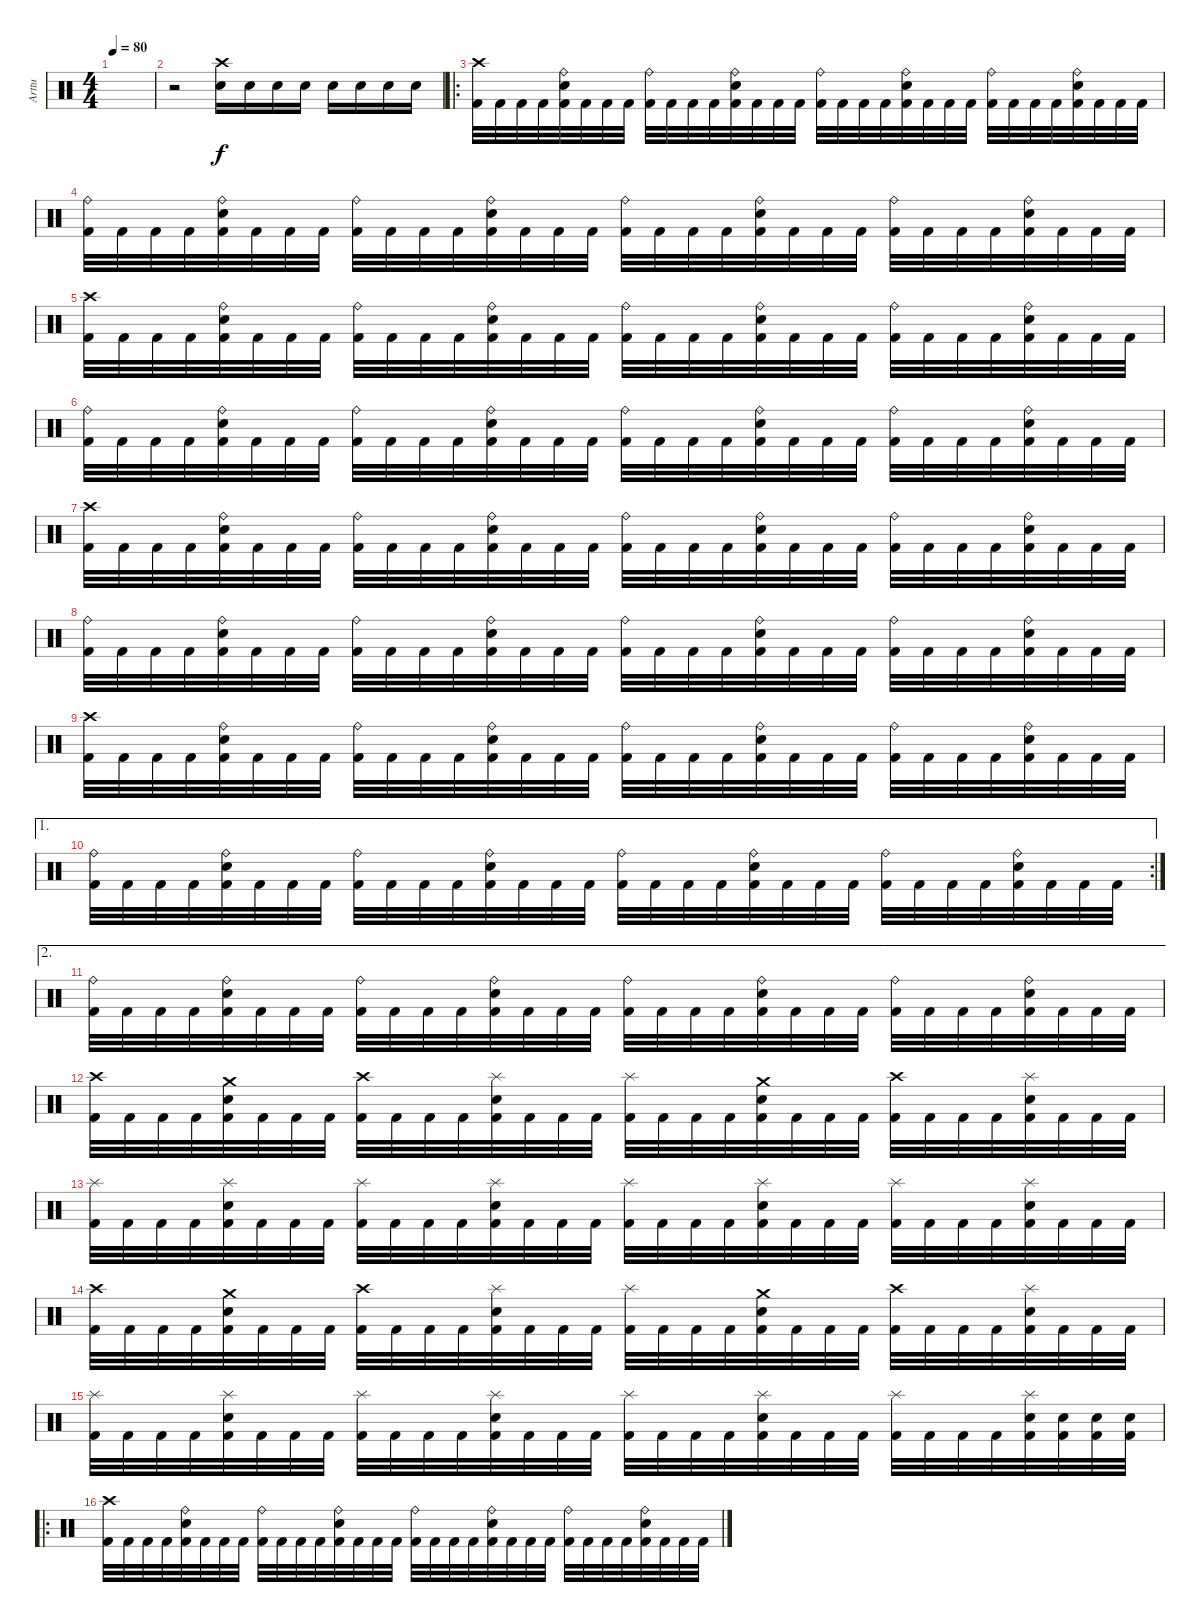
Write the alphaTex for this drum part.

\track ("Arttu" "Arttu") {instrument percussion}
\staff {score}
\articulation defaults
\ts (4 4)
\tempo 80
\clef neutral
\ks c
|
r.2 ("Crash high (hit)" "Electric Snare (hit)").16 "Electric Snare (hit)".16 "Electric Snare (hit)".16 "Electric Snare (hit)".16 "Electric Snare (hit)".16 "Electric Snare (hit)".16 "Electric Snare (hit)".16 "Electric Snare (hit)".16 |
\ro
("Kick (hit) 2" "Crash high (hit)").32 "Kick (hit) 2".32 "Kick (hit) 2".32 "Kick (hit) 2".32 ("Kick (hit) 2" "Electric Snare (hit)" "Ride (bell)").32 "Kick (hit) 2".32 "Kick (hit) 2".32 "Kick (hit) 2".32 ("Kick (hit) 2" "Ride (bell)").32 "Kick (hit) 2".32 "Kick (hit) 2".32 "Kick (hit) 2".32 ("Kick (hit) 2" "Electric Snare (hit)" "Ride (bell)").32 "Kick (hit) 2".32 "Kick (hit) 2".32 "Kick (hit) 2".32 ("Kick (hit) 2" "Ride (bell)").32 "Kick (hit) 2".32 "Kick (hit) 2".32 "Kick (hit) 2".32 ("Kick (hit) 2" "Electric Snare (hit)" "Ride (bell)").32 "Kick (hit) 2".32 "Kick (hit) 2".32 "Kick (hit) 2".32 ("Kick (hit) 2" "Ride (bell)").32 "Kick (hit) 2".32 "Kick (hit) 2".32 "Kick (hit) 2".32 ("Kick (hit) 2" "Electric Snare (hit)" "Ride (bell)").32 "Kick (hit) 2".32 "Kick (hit) 2".32 "Kick (hit) 2".32 |
("Kick (hit) 2" "Ride (bell)").32 "Kick (hit) 2".32 "Kick (hit) 2".32 "Kick (hit) 2".32 ("Kick (hit) 2" "Electric Snare (hit)" "Ride (bell)").32 "Kick (hit) 2".32 "Kick (hit) 2".32 "Kick (hit) 2".32 ("Kick (hit) 2" "Ride (bell)").32 "Kick (hit) 2".32 "Kick (hit) 2".32 "Kick (hit) 2".32 ("Kick (hit) 2" "Electric Snare (hit)" "Ride (bell)").32 "Kick (hit) 2".32 "Kick (hit) 2".32 "Kick (hit) 2".32 ("Kick (hit) 2" "Ride (bell)").32 "Kick (hit) 2".32 "Kick (hit) 2".32 "Kick (hit) 2".32 ("Kick (hit) 2" "Electric Snare (hit)" "Ride (bell)").32 "Kick (hit) 2".32 "Kick (hit) 2".32 "Kick (hit) 2".32 ("Kick (hit) 2" "Ride (bell)").32 "Kick (hit) 2".32 "Kick (hit) 2".32 "Kick (hit) 2".32 ("Kick (hit) 2" "Electric Snare (hit)" "Ride (bell)").32 "Kick (hit) 2".32 "Kick (hit) 2".32 "Kick (hit) 2".32 |
("Kick (hit) 2" "Crash high (hit)").32 "Kick (hit) 2".32 "Kick (hit) 2".32 "Kick (hit) 2".32 ("Kick (hit) 2" "Electric Snare (hit)" "Ride (bell)").32 "Kick (hit) 2".32 "Kick (hit) 2".32 "Kick (hit) 2".32 ("Kick (hit) 2" "Ride (bell)").32 "Kick (hit) 2".32 "Kick (hit) 2".32 "Kick (hit) 2".32 ("Kick (hit) 2" "Electric Snare (hit)" "Ride (bell)").32 "Kick (hit) 2".32 "Kick (hit) 2".32 "Kick (hit) 2".32 ("Kick (hit) 2" "Ride (bell)").32 "Kick (hit) 2".32 "Kick (hit) 2".32 "Kick (hit) 2".32 ("Kick (hit) 2" "Electric Snare (hit)" "Ride (bell)").32 "Kick (hit) 2".32 "Kick (hit) 2".32 "Kick (hit) 2".32 ("Kick (hit) 2" "Ride (bell)").32 "Kick (hit) 2".32 "Kick (hit) 2".32 "Kick (hit) 2".32 ("Kick (hit) 2" "Electric Snare (hit)" "Ride (bell)").32 "Kick (hit) 2".32 "Kick (hit) 2".32 "Kick (hit) 2".32 |
("Kick (hit) 2" "Ride (bell)").32 "Kick (hit) 2".32 "Kick (hit) 2".32 "Kick (hit) 2".32 ("Kick (hit) 2" "Electric Snare (hit)" "Ride (bell)").32 "Kick (hit) 2".32 "Kick (hit) 2".32 "Kick (hit) 2".32 ("Kick (hit) 2" "Ride (bell)").32 "Kick (hit) 2".32 "Kick (hit) 2".32 "Kick (hit) 2".32 ("Kick (hit) 2" "Electric Snare (hit)" "Ride (bell)").32 "Kick (hit) 2".32 "Kick (hit) 2".32 "Kick (hit) 2".32 ("Kick (hit) 2" "Ride (bell)").32 "Kick (hit) 2".32 "Kick (hit) 2".32 "Kick (hit) 2".32 ("Kick (hit) 2" "Electric Snare (hit)" "Ride (bell)").32 "Kick (hit) 2".32 "Kick (hit) 2".32 "Kick (hit) 2".32 ("Kick (hit) 2" "Ride (bell)").32 "Kick (hit) 2".32 "Kick (hit) 2".32 "Kick (hit) 2".32 ("Kick (hit) 2" "Electric Snare (hit)" "Ride (bell)").32 "Kick (hit) 2".32 "Kick (hit) 2".32 "Kick (hit) 2".32 |
("Kick (hit) 2" "Crash high (hit)").32 "Kick (hit) 2".32 "Kick (hit) 2".32 "Kick (hit) 2".32 ("Kick (hit) 2" "Electric Snare (hit)" "Ride (bell)").32 "Kick (hit) 2".32 "Kick (hit) 2".32 "Kick (hit) 2".32 ("Kick (hit) 2" "Ride (bell)").32 "Kick (hit) 2".32 "Kick (hit) 2".32 "Kick (hit) 2".32 ("Kick (hit) 2" "Electric Snare (hit)" "Ride (bell)").32 "Kick (hit) 2".32 "Kick (hit) 2".32 "Kick (hit) 2".32 ("Kick (hit) 2" "Ride (bell)").32 "Kick (hit) 2".32 "Kick (hit) 2".32 "Kick (hit) 2".32 ("Kick (hit) 2" "Electric Snare (hit)" "Ride (bell)").32 "Kick (hit) 2".32 "Kick (hit) 2".32 "Kick (hit) 2".32 ("Kick (hit) 2" "Ride (bell)").32 "Kick (hit) 2".32 "Kick (hit) 2".32 "Kick (hit) 2".32 ("Kick (hit) 2" "Electric Snare (hit)" "Ride (bell)").32 "Kick (hit) 2".32 "Kick (hit) 2".32 "Kick (hit) 2".32 |
("Kick (hit) 2" "Ride (bell)").32 "Kick (hit) 2".32 "Kick (hit) 2".32 "Kick (hit) 2".32 ("Kick (hit) 2" "Electric Snare (hit)" "Ride (bell)").32 "Kick (hit) 2".32 "Kick (hit) 2".32 "Kick (hit) 2".32 ("Kick (hit) 2" "Ride (bell)").32 "Kick (hit) 2".32 "Kick (hit) 2".32 "Kick (hit) 2".32 ("Kick (hit) 2" "Electric Snare (hit)" "Ride (bell)").32 "Kick (hit) 2".32 "Kick (hit) 2".32 "Kick (hit) 2".32 ("Kick (hit) 2" "Ride (bell)").32 "Kick (hit) 2".32 "Kick (hit) 2".32 "Kick (hit) 2".32 ("Kick (hit) 2" "Electric Snare (hit)" "Ride (bell)").32 "Kick (hit) 2".32 "Kick (hit) 2".32 "Kick (hit) 2".32 ("Kick (hit) 2" "Ride (bell)").32 "Kick (hit) 2".32 "Kick (hit) 2".32 "Kick (hit) 2".32 ("Kick (hit) 2" "Electric Snare (hit)" "Ride (bell)").32 "Kick (hit) 2".32 "Kick (hit) 2".32 "Kick (hit) 2".32 |
("Kick (hit) 2" "Crash high (hit)").32 "Kick (hit) 2".32 "Kick (hit) 2".32 "Kick (hit) 2".32 ("Kick (hit) 2" "Electric Snare (hit)" "Ride (bell)").32 "Kick (hit) 2".32 "Kick (hit) 2".32 "Kick (hit) 2".32 ("Kick (hit) 2" "Ride (bell)").32 "Kick (hit) 2".32 "Kick (hit) 2".32 "Kick (hit) 2".32 ("Kick (hit) 2" "Electric Snare (hit)" "Ride (bell)").32 "Kick (hit) 2".32 "Kick (hit) 2".32 "Kick (hit) 2".32 ("Kick (hit) 2" "Ride (bell)").32 "Kick (hit) 2".32 "Kick (hit) 2".32 "Kick (hit) 2".32 ("Kick (hit) 2" "Electric Snare (hit)" "Ride (bell)").32 "Kick (hit) 2".32 "Kick (hit) 2".32 "Kick (hit) 2".32 ("Kick (hit) 2" "Ride (bell)").32 "Kick (hit) 2".32 "Kick (hit) 2".32 "Kick (hit) 2".32 ("Kick (hit) 2" "Electric Snare (hit)" "Ride (bell)").32 "Kick (hit) 2".32 "Kick (hit) 2".32 "Kick (hit) 2".32 |
\ae 1
\rc 2
("Kick (hit) 2" "Ride (bell)").32 "Kick (hit) 2".32 "Kick (hit) 2".32 "Kick (hit) 2".32 ("Kick (hit) 2" "Electric Snare (hit)" "Ride (bell)").32 "Kick (hit) 2".32 "Kick (hit) 2".32 "Kick (hit) 2".32 ("Kick (hit) 2" "Ride (bell)").32 "Kick (hit) 2".32 "Kick (hit) 2".32 "Kick (hit) 2".32 ("Kick (hit) 2" "Electric Snare (hit)" "Ride (bell)").32 "Kick (hit) 2".32 "Kick (hit) 2".32 "Kick (hit) 2".32 ("Kick (hit) 2" "Ride (bell)").32 "Kick (hit) 2".32 "Kick (hit) 2".32 "Kick (hit) 2".32 ("Kick (hit) 2" "Electric Snare (hit)" "Ride (bell)").32 "Kick (hit) 2".32 "Kick (hit) 2".32 "Kick (hit) 2".32 ("Kick (hit) 2" "Ride (bell)").32 "Kick (hit) 2".32 "Kick (hit) 2".32 "Kick (hit) 2".32 ("Kick (hit) 2" "Electric Snare (hit)" "Ride (bell)").32 "Kick (hit) 2".32 "Kick (hit) 2".32 "Kick (hit) 2".32 |
\ae 2
("Kick (hit) 2" "Ride (bell)").32 "Kick (hit) 2".32 "Kick (hit) 2".32 "Kick (hit) 2".32 ("Kick (hit) 2" "Electric Snare (hit)" "Ride (bell)").32 "Kick (hit) 2".32 "Kick (hit) 2".32 "Kick (hit) 2".32 ("Kick (hit) 2" "Ride (bell)").32 "Kick (hit) 2".32 "Kick (hit) 2".32 "Kick (hit) 2".32 ("Kick (hit) 2" "Electric Snare (hit)" "Ride (bell)").32 "Kick (hit) 2".32 "Kick (hit) 2".32 "Kick (hit) 2".32 ("Kick (hit) 2" "Ride (bell)").32 "Kick (hit) 2".32 "Kick (hit) 2".32 "Kick (hit) 2".32 ("Kick (hit) 2" "Electric Snare (hit)" "Ride (bell)").32 "Kick (hit) 2".32 "Kick (hit) 2".32 "Kick (hit) 2".32 ("Kick (hit) 2" "Ride (bell)").32 "Kick (hit) 2".32 "Kick (hit) 2".32 "Kick (hit) 2".32 ("Kick (hit) 2" "Electric Snare (hit)" "Ride (bell)").32 "Kick (hit) 2".32 "Kick (hit) 2".32 "Kick (hit) 2".32 |
("Kick (hit) 2" "Crash high (hit)").32 "Kick (hit) 2".32 "Kick (hit) 2".32 "Kick (hit) 2".32 ("Kick (hit) 2" "Electric Snare (hit)" "Crash medium (hit)").32 "Kick (hit) 2".32 "Kick (hit) 2".32 "Kick (hit) 2".32 ("Kick (hit) 2" "Crash high (hit)").32 "Kick (hit) 2".32 "Kick (hit) 2".32 "Kick (hit) 2".32 ("Kick (hit) 2" "Electric Snare (hit)" "Splash (hit)").32 "Kick (hit) 2".32 "Kick (hit) 2".32 "Kick (hit) 2".32 ("Kick (hit) 2" "Splash (hit)").32 "Kick (hit) 2".32 "Kick (hit) 2".32 "Kick (hit) 2".32 ("Kick (hit) 2" "Electric Snare (hit)" "Crash medium (hit)").32 "Kick (hit) 2".32 "Kick (hit) 2".32 "Kick (hit) 2".32 ("Kick (hit) 2" "Crash high (hit)").32 "Kick (hit) 2".32 "Kick (hit) 2".32 "Kick (hit) 2".32 ("Kick (hit) 2" "Electric Snare (hit)" "Splash (hit)").32 "Kick (hit) 2".32 "Kick (hit) 2".32 "Kick (hit) 2".32 |
("Kick (hit) 2" "Splash (hit)").32 "Kick (hit) 2".32 "Kick (hit) 2".32 "Kick (hit) 2".32 ("Kick (hit) 2" "Electric Snare (hit)" "Splash (hit)").32 "Kick (hit) 2".32 "Kick (hit) 2".32 "Kick (hit) 2".32 ("Kick (hit) 2" "Splash (hit)").32 "Kick (hit) 2".32 "Kick (hit) 2".32 "Kick (hit) 2".32 ("Kick (hit) 2" "Electric Snare (hit)" "Splash (hit)").32 "Kick (hit) 2".32 "Kick (hit) 2".32 "Kick (hit) 2".32 ("Kick (hit) 2" "Splash (hit)").32 "Kick (hit) 2".32 "Kick (hit) 2".32 "Kick (hit) 2".32 ("Kick (hit) 2" "Electric Snare (hit)" "Splash (hit)").32 "Kick (hit) 2".32 "Kick (hit) 2".32 "Kick (hit) 2".32 ("Kick (hit) 2" "Splash (hit)").32 "Kick (hit) 2".32 "Kick (hit) 2".32 "Kick (hit) 2".32 ("Kick (hit) 2" "Electric Snare (hit)" "Splash (hit)").32 "Kick (hit) 2".32 "Kick (hit) 2".32 "Kick (hit) 2".32 |
("Kick (hit) 2" "Crash high (hit)").32 "Kick (hit) 2".32 "Kick (hit) 2".32 "Kick (hit) 2".32 ("Kick (hit) 2" "Electric Snare (hit)" "Crash medium (hit)").32 "Kick (hit) 2".32 "Kick (hit) 2".32 "Kick (hit) 2".32 ("Kick (hit) 2" "Crash high (hit)").32 "Kick (hit) 2".32 "Kick (hit) 2".32 "Kick (hit) 2".32 ("Kick (hit) 2" "Electric Snare (hit)" "Splash (hit)").32 "Kick (hit) 2".32 "Kick (hit) 2".32 "Kick (hit) 2".32 ("Kick (hit) 2" "Splash (hit)").32 "Kick (hit) 2".32 "Kick (hit) 2".32 "Kick (hit) 2".32 ("Kick (hit) 2" "Electric Snare (hit)" "Crash medium (hit)").32 "Kick (hit) 2".32 "Kick (hit) 2".32 "Kick (hit) 2".32 ("Kick (hit) 2" "Crash high (hit)").32 "Kick (hit) 2".32 "Kick (hit) 2".32 "Kick (hit) 2".32 ("Kick (hit) 2" "Electric Snare (hit)" "Splash (hit)").32 "Kick (hit) 2".32 "Kick (hit) 2".32 "Kick (hit) 2".32 |
("Kick (hit) 2" "Splash (hit)").32 "Kick (hit) 2".32 "Kick (hit) 2".32 "Kick (hit) 2".32 ("Kick (hit) 2" "Electric Snare (hit)" "Splash (hit)").32 "Kick (hit) 2".32 "Kick (hit) 2".32 "Kick (hit) 2".32 ("Kick (hit) 2" "Splash (hit)").32 "Kick (hit) 2".32 "Kick (hit) 2".32 "Kick (hit) 2".32 ("Kick (hit) 2" "Electric Snare (hit)" "Splash (hit)").32 "Kick (hit) 2".32 "Kick (hit) 2".32 "Kick (hit) 2".32 ("Kick (hit) 2" "Splash (hit)").32 "Kick (hit) 2".32 "Kick (hit) 2".32 "Kick (hit) 2".32 ("Kick (hit) 2" "Electric Snare (hit)" "Splash (hit)").32 "Kick (hit) 2".32 "Kick (hit) 2".32 "Kick (hit) 2".32 ("Kick (hit) 2" "Splash (hit)").32 "Kick (hit) 2".32 "Kick (hit) 2".32 "Kick (hit) 2".32 ("Kick (hit) 2" "Electric Snare (hit)" "Splash (hit)").32 ("Kick (hit) 2" "Electric Snare (hit)").32 ("Kick (hit) 2" "Electric Snare (hit)").32 ("Kick (hit) 2" "Electric Snare (hit)").32 |
\ro
("Kick (hit) 2" "Crash high (hit)").32 "Kick (hit) 2".32 "Kick (hit) 2".32 "Kick (hit) 2".32 ("Kick (hit) 2" "Electric Snare (hit)" "Ride (bell)").32 "Kick (hit) 2".32 "Kick (hit) 2".32 "Kick (hit) 2".32 ("Kick (hit) 2" "Ride (bell)").32 "Kick (hit) 2".32 "Kick (hit) 2".32 "Kick (hit) 2".32 ("Kick (hit) 2" "Electric Snare (hit)" "Ride (bell)").32 "Kick (hit) 2".32 "Kick (hit) 2".32 "Kick (hit) 2".32 ("Kick (hit) 2" "Ride (bell)").32 "Kick (hit) 2".32 "Kick (hit) 2".32 "Kick (hit) 2".32 ("Kick (hit) 2" "Electric Snare (hit)" "Ride (bell)").32 "Kick (hit) 2".32 "Kick (hit) 2".32 "Kick (hit) 2".32 ("Kick (hit) 2" "Ride (bell)").32 "Kick (hit) 2".32 "Kick (hit) 2".32 "Kick (hit) 2".32 ("Kick (hit) 2" "Electric Snare (hit)" "Ride (bell)").32 "Kick (hit) 2".32 "Kick (hit) 2".32 "Kick (hit) 2".32
